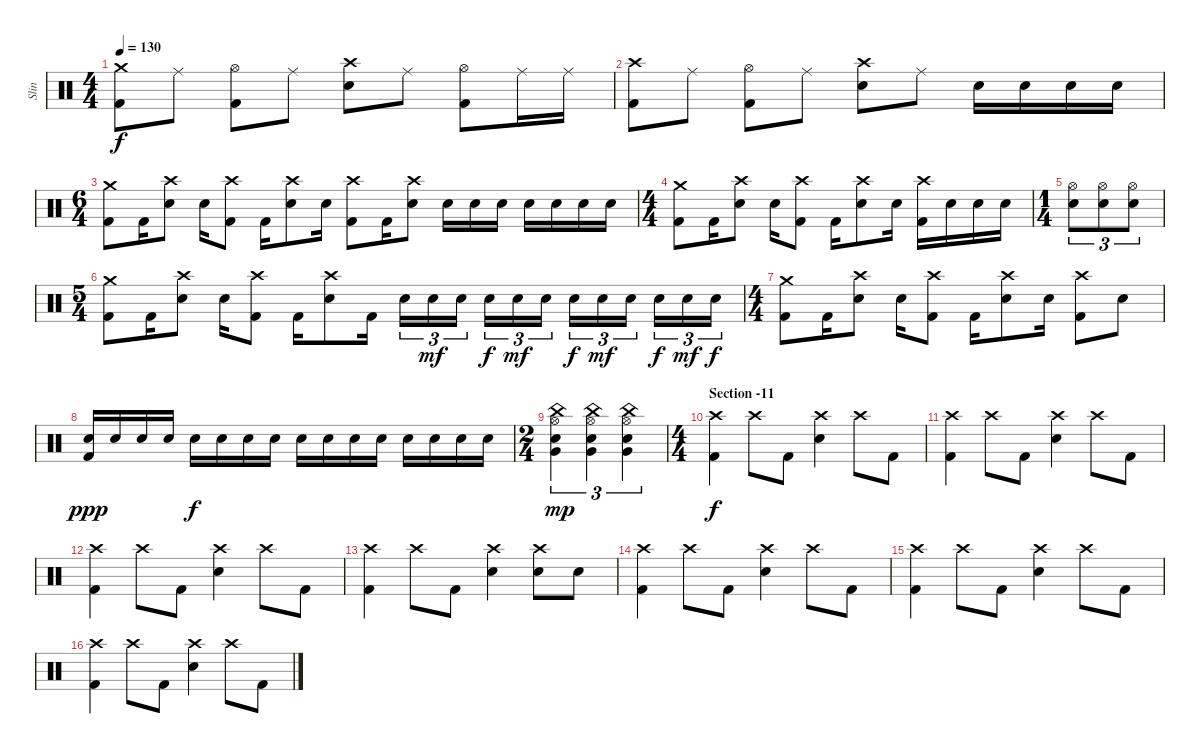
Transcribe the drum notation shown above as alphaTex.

\track ("Slin" "Slin") {instrument percussion}
\staff {score}
\articulation defaults
\ts (4 4)
\tempo 130
\clef neutral
\ks c
("Crash medium (hit)" "Kick (hit) 2").8{dy f} "Ride (middle)".8 ("Hi-Hat (open)" "Kick (hit) 2").8 "Ride (middle)".8 ("Crash high (hit)" "Snare (hit) 2").8 "Ride (middle)".8 ("Hi-Hat (open)" "Kick (hit) 2").8 "Ride (middle)".16 "Ride (middle)".16 |
("Crash high (hit)" "Kick (hit) 2").8 "Ride (middle)".8 ("Hi-Hat (open)" "Kick (hit) 2").8 "Ride (middle)".8 ("Crash high (hit)" "Snare (hit) 2").8 "Ride (middle)".8 "Snare (hit) 2".16 "Snare (hit) 2".16 "Snare (hit) 2".16 "Snare (hit) 2".16 |
\ts (6 4)
("Crash medium (hit)" "Kick (hit) 2").8 "Kick (hit) 2".16 ("Crash high (hit)" "Snare (hit) 2").8 "Snare (hit) 2".16 ("Crash high (hit)" "Kick (hit) 2").8 "Kick (hit) 2".16 ("Crash high (hit)" "Snare (hit) 2").8 "Snare (hit) 2".16 ("Crash high (hit)" "Kick (hit) 2").8 "Kick (hit) 2".16 ("Crash high (hit)" "Snare (hit) 2").8 "Snare (hit) 2".16 "Snare (hit) 2".16 "Snare (hit) 2".16 "Snare (hit) 2".16 "Snare (hit) 2".16 "Snare (hit) 2".16 "Snare (hit) 2".16 |
\ts (4 4)
("Crash medium (hit)" "Kick (hit) 2").8 "Kick (hit) 2".16 ("Crash high (hit)" "Snare (hit) 2").8 "Snare (hit) 2".16 ("Crash high (hit)" "Kick (hit) 2").8 "Kick (hit) 2".16 ("Crash high (hit)" "Snare (hit) 2").8 "Snare (hit) 2".16 ("Crash high (hit)" "Kick (hit) 2").16 "Snare (hit) 2".16 "Snare (hit) 2".16 "Snare (hit) 2".16 |
\ts (1 4)
("Hi-Hat (open)" "Snare (hit) 2").8{tu (3 2)} ("Hi-Hat (open)" "Snare (hit) 2").8{tu (3 2)} ("Hi-Hat (open)" "Snare (hit) 2").8{tu (3 2)} |
\ts (5 4)
("Crash medium (hit)" "Kick (hit) 2").8 "Kick (hit) 2".16 ("Crash high (hit)" "Snare (hit) 2").8 "Snare (hit) 2".16 ("Crash high (hit)" "Kick (hit) 2").8 "Kick (hit) 2".16 ("Crash high (hit)" "Snare (hit) 2").8 "Kick (hit) 2".16 "Snare (hit) 2".16{tu (3 2)} "Snare (hit) 2".16{tu (3 2) dy mf} "Snare (hit) 2".16{tu (3 2)} "Snare (hit) 2".16{tu (3 2) dy f} "Snare (hit) 2".16{tu (3 2) dy mf} "Snare (hit) 2".16{tu (3 2)} "Snare (hit) 2".16{tu (3 2) dy f} "Snare (hit) 2".16{tu (3 2) dy mf} "Snare (hit) 2".16{tu (3 2)} "Snare (hit) 2".16{tu (3 2) dy f} "Snare (hit) 2".16{tu (3 2) dy mf} "Snare (hit) 2".16{tu (3 2) dy f} |
\ts (4 4)
("Crash medium (hit)" "Kick (hit) 2").8 "Kick (hit) 2".16 ("Crash high (hit)" "Snare (hit) 2").8 "Snare (hit) 2".16 ("Crash high (hit)" "Kick (hit) 2").8 "Kick (hit) 2".16 ("Crash high (hit)" "Snare (hit) 2").8 "Snare (hit) 2".16 ("Crash high (hit)" "Kick (hit) 2").8 "Snare (hit) 2".8 |
("Kick (hit) 2" "Snare (hit) 2").16{dy ppp} "Snare (hit) 2".16 "Snare (hit) 2".16 "Snare (hit) 2".16{volume 0} "Snare (hit) 2".16{dy f volume 13} "Snare (hit) 2".16 "Snare (hit) 2".16 "Snare (hit) 2".16 "Snare (hit) 2".16 "Snare (hit) 2".16 "Snare (hit) 2".16 "Snare (hit) 2".16 "Snare (hit) 2".16 "Snare (hit) 2".16 "Snare (hit) 2".16 "Snare (hit) 2".16 |
\ts (2 4)
("China (hit)" "Hi-Hat (open)" "Very Low Tom (hit)" "Snare (hit) 2").4{tu (3 2) dy mp} ("China (hit)" "Hi-Hat (open)" "Very Low Tom (hit)" "Snare (hit) 2").4{tu (3 2)} ("China (hit)" "Hi-Hat (open)" "Very Low Tom (hit)" "Snare (hit) 2").4{tu (3 2)} |
\ts (4 4)
\section ("" "Section -11")
("Crash high (hit)" "Kick (hit) 2").4{dy f} "Crash high (hit)".8 "Kick (hit) 2".8 ("Crash high (hit)" "Snare (hit) 2").4 "Crash high (hit)".8 "Kick (hit) 2".8 |
("Crash high (hit)" "Kick (hit) 2").4 "Crash high (hit)".8 "Kick (hit) 2".8 ("Crash high (hit)" "Snare (hit) 2").4 "Crash high (hit)".8 "Kick (hit) 2".8 |
("Crash high (hit)" "Kick (hit) 2").4 "Crash high (hit)".8 "Kick (hit) 2".8 ("Crash high (hit)" "Snare (hit) 2").4 "Crash high (hit)".8 "Kick (hit) 2".8 |
("Crash high (hit)" "Kick (hit) 2").4 "Crash high (hit)".8 "Kick (hit) 2".8 ("Crash high (hit)" "Snare (hit) 2").4 ("Crash high (hit)" "Snare (hit) 2").8 "Snare (hit) 2".8 |
("Crash high (hit)" "Kick (hit) 2").4 "Crash high (hit)".8 "Kick (hit) 2".8 ("Crash high (hit)" "Snare (hit) 2").4 "Crash high (hit)".8 "Kick (hit) 2".8 |
("Crash high (hit)" "Kick (hit) 2").4 "Crash high (hit)".8 "Kick (hit) 2".8 ("Crash high (hit)" "Snare (hit) 2").4 "Crash high (hit)".8 "Kick (hit) 2".8 |
("Crash high (hit)" "Kick (hit) 2").4 "Crash high (hit)".8 "Kick (hit) 2".8 ("Crash high (hit)" "Snare (hit) 2").4 "Crash high (hit)".8 "Kick (hit) 2".8
